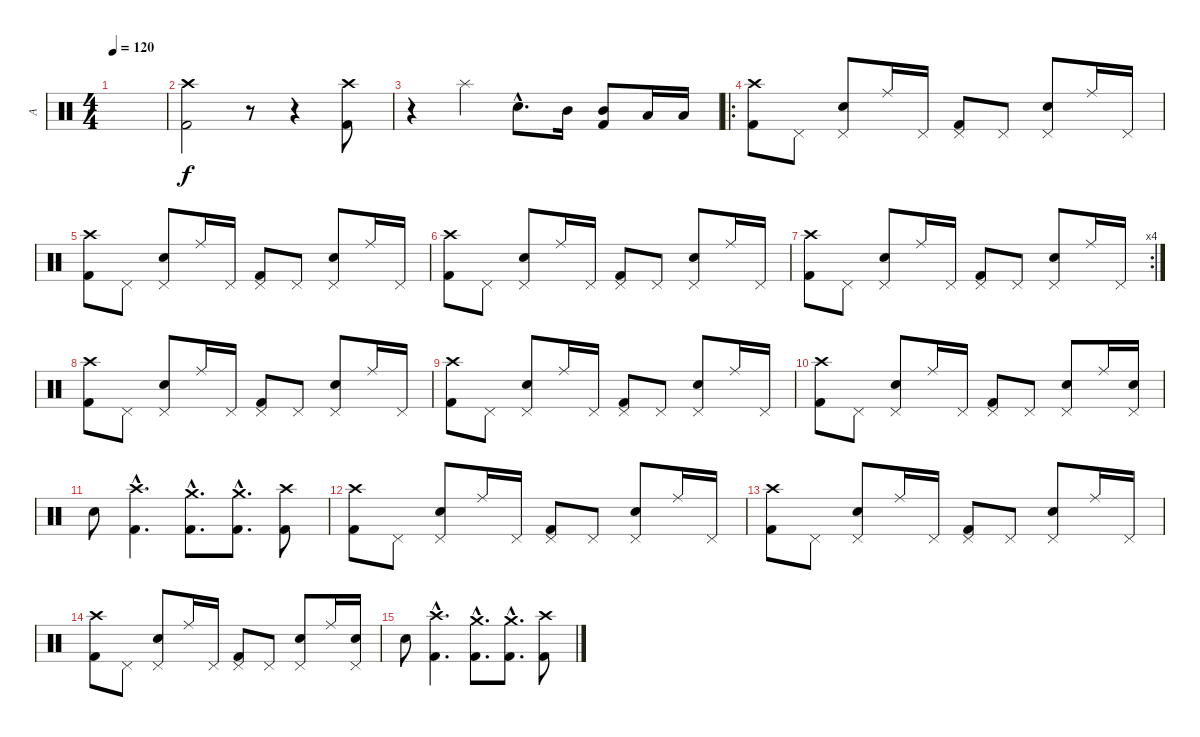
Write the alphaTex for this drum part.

\track ("A" "A") {instrument percussion}
\staff {score}
\articulation defaults
\ts (4 4)
\tempo 120
\clef neutral
\ks c
|
("Crash high (hit)" "Kick (hit) 2").2 r.8 r.4 ("Crash high (hit)" "Kick (hit) 2").8 |
r.4 "Splash (hit)".4 "Snare (hit) 2"{hac}.8{d} "Mid Tom (hit)".16 ("Kick (hit) 2" "Mid Tom (hit)").8 "Low Tom (hit)".16 "Low Tom (hit)".16 |
\ro
("Crash high (hit)" "Kick (hit) 2").8 "Pedal Hi-Hat (hit)".8 ("Pedal Hi-Hat (hit)" "Snare (hit) 2").8 "Ride (middle)".16 "Pedal Hi-Hat (hit)".16 ("Pedal Hi-Hat (hit)" "Kick (hit) 2").8 "Pedal Hi-Hat (hit)".8 ("Pedal Hi-Hat (hit)" "Snare (hit) 2").8 "Ride (middle)".16 "Pedal Hi-Hat (hit)".16 |
("Crash high (hit)" "Kick (hit) 2").8 "Pedal Hi-Hat (hit)".8 ("Pedal Hi-Hat (hit)" "Snare (hit) 2").8 "Ride (middle)".16 "Pedal Hi-Hat (hit)".16 ("Pedal Hi-Hat (hit)" "Kick (hit) 2").8 "Pedal Hi-Hat (hit)".8 ("Pedal Hi-Hat (hit)" "Snare (hit) 2").8 "Ride (middle)".16 "Pedal Hi-Hat (hit)".16 |
("Crash high (hit)" "Kick (hit) 2").8 "Pedal Hi-Hat (hit)".8 ("Pedal Hi-Hat (hit)" "Snare (hit) 2").8 "Ride (middle)".16 "Pedal Hi-Hat (hit)".16 ("Pedal Hi-Hat (hit)" "Kick (hit) 2").8 "Pedal Hi-Hat (hit)".8 ("Pedal Hi-Hat (hit)" "Snare (hit) 2").8 "Ride (middle)".16 "Pedal Hi-Hat (hit)".16 |
\rc 4
("Crash high (hit)" "Kick (hit) 2").8 "Pedal Hi-Hat (hit)".8 ("Pedal Hi-Hat (hit)" "Snare (hit) 2").8 "Ride (middle)".16 "Pedal Hi-Hat (hit)".16 ("Pedal Hi-Hat (hit)" "Kick (hit) 2").8 "Pedal Hi-Hat (hit)".8 ("Pedal Hi-Hat (hit)" "Snare (hit) 2").8 "Ride (middle)".16 "Pedal Hi-Hat (hit)".16 |
("Crash high (hit)" "Kick (hit) 2").8 "Pedal Hi-Hat (hit)".8 ("Pedal Hi-Hat (hit)" "Snare (hit) 2").8 "Ride (middle)".16 "Pedal Hi-Hat (hit)".16 ("Pedal Hi-Hat (hit)" "Kick (hit) 2").8 "Pedal Hi-Hat (hit)".8 ("Pedal Hi-Hat (hit)" "Snare (hit) 2").8 "Ride (middle)".16 "Pedal Hi-Hat (hit)".16 |
("Crash high (hit)" "Kick (hit) 2").8 "Pedal Hi-Hat (hit)".8 ("Pedal Hi-Hat (hit)" "Snare (hit) 2").8 "Ride (middle)".16 "Pedal Hi-Hat (hit)".16 ("Pedal Hi-Hat (hit)" "Kick (hit) 2").8 "Pedal Hi-Hat (hit)".8 ("Pedal Hi-Hat (hit)" "Snare (hit) 2").8 "Ride (middle)".16 "Pedal Hi-Hat (hit)".16 |
("Crash high (hit)" "Kick (hit) 2").8 "Pedal Hi-Hat (hit)".8 ("Pedal Hi-Hat (hit)" "Snare (hit) 2").8 "Ride (middle)".16 "Pedal Hi-Hat (hit)".16 ("Pedal Hi-Hat (hit)" "Kick (hit) 2").8 "Pedal Hi-Hat (hit)".8 ("Pedal Hi-Hat (hit)" "Snare (hit) 2").8 "Ride (middle)".16 ("Pedal Hi-Hat (hit)" "Snare (hit) 2").16 |
"Snare (hit) 2".8 ("Crash high (hit)"{hac} "Kick (hit) 2"{hac}).4{d} ("Crash medium (hit)"{hac} "Kick (hit) 2"{hac}).8{d} ("Crash medium (hit)"{hac} "Kick (hit) 2"{hac}).8{d} ("Crash high (hit)" "Kick (hit) 2").8 |
("Crash high (hit)" "Kick (hit) 2").8 "Pedal Hi-Hat (hit)".8 ("Pedal Hi-Hat (hit)" "Snare (hit) 2").8 "Ride (middle)".16 "Pedal Hi-Hat (hit)".16 ("Pedal Hi-Hat (hit)" "Kick (hit) 2").8 "Pedal Hi-Hat (hit)".8 ("Pedal Hi-Hat (hit)" "Snare (hit) 2").8 "Ride (middle)".16 "Pedal Hi-Hat (hit)".16 |
("Crash high (hit)" "Kick (hit) 2").8 "Pedal Hi-Hat (hit)".8 ("Pedal Hi-Hat (hit)" "Snare (hit) 2").8 "Ride (middle)".16 "Pedal Hi-Hat (hit)".16 ("Pedal Hi-Hat (hit)" "Kick (hit) 2").8 "Pedal Hi-Hat (hit)".8 ("Pedal Hi-Hat (hit)" "Snare (hit) 2").8 "Ride (middle)".16 "Pedal Hi-Hat (hit)".16 |
("Crash high (hit)" "Kick (hit) 2").8 "Pedal Hi-Hat (hit)".8 ("Pedal Hi-Hat (hit)" "Snare (hit) 2").8 "Ride (middle)".16 "Pedal Hi-Hat (hit)".16 ("Pedal Hi-Hat (hit)" "Kick (hit) 2").8 "Pedal Hi-Hat (hit)".8 ("Pedal Hi-Hat (hit)" "Snare (hit) 2").8 "Ride (middle)".16 ("Pedal Hi-Hat (hit)" "Snare (hit) 2").16 |
"Snare (hit) 2".8 ("Crash high (hit)"{hac} "Kick (hit) 2"{hac}).4{d} ("Crash medium (hit)"{hac} "Kick (hit) 2"{hac}).8{d} ("Crash medium (hit)"{hac} "Kick (hit) 2"{hac}).8{d} ("Crash high (hit)" "Kick (hit) 2").8
